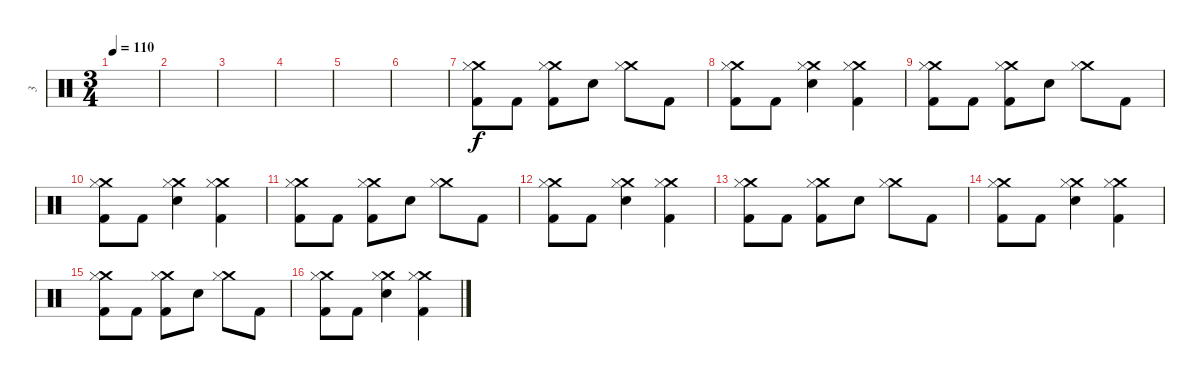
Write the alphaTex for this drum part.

\track ("3" "3") {instrument percussion}
\staff {score}
\articulation defaults
\ts (3 4)
\tempo 110
\clef neutral
\ks c
|
|
|
|
|
|
("Crash medium (hit)" "Hi-Hat (closed)" "Kick (hit) 2").8 "Kick (hit) 2".8 ("Crash medium (hit)" "Hi-Hat (closed)" "Kick (hit) 2").8 "Snare (hit) 2".8 ("Crash medium (hit)" "Hi-Hat (closed)").8 "Kick (hit) 2".8 |
("Crash medium (hit)" "Hi-Hat (closed)" "Kick (hit) 2").8 "Kick (hit) 2".8 ("Crash medium (hit)" "Hi-Hat (closed)" "Snare (hit) 2").4 ("Crash medium (hit)" "Hi-Hat (closed)" "Kick (hit) 2").4 |
("Crash medium (hit)" "Hi-Hat (closed)" "Kick (hit) 2").8 "Kick (hit) 2".8 ("Crash medium (hit)" "Hi-Hat (closed)" "Kick (hit) 2").8 "Snare (hit) 2".8 ("Crash medium (hit)" "Hi-Hat (closed)").8 "Kick (hit) 2".8 |
("Crash medium (hit)" "Hi-Hat (closed)" "Kick (hit) 2").8 "Kick (hit) 2".8 ("Crash medium (hit)" "Hi-Hat (closed)" "Snare (hit) 2").4 ("Crash medium (hit)" "Hi-Hat (closed)" "Kick (hit) 2").4 |
("Crash medium (hit)" "Hi-Hat (closed)" "Kick (hit) 2").8 "Kick (hit) 2".8 ("Crash medium (hit)" "Hi-Hat (closed)" "Kick (hit) 2").8 "Snare (hit) 2".8 ("Crash medium (hit)" "Hi-Hat (closed)").8 "Kick (hit) 2".8 |
("Crash medium (hit)" "Hi-Hat (closed)" "Kick (hit) 2").8 "Kick (hit) 2".8 ("Crash medium (hit)" "Hi-Hat (closed)" "Snare (hit) 2").4 ("Crash medium (hit)" "Hi-Hat (closed)" "Kick (hit) 2").4 |
("Crash medium (hit)" "Hi-Hat (closed)" "Kick (hit) 2").8 "Kick (hit) 2".8 ("Crash medium (hit)" "Hi-Hat (closed)" "Kick (hit) 2").8 "Snare (hit) 2".8 ("Crash medium (hit)" "Hi-Hat (closed)").8 "Kick (hit) 2".8 |
("Crash medium (hit)" "Hi-Hat (closed)" "Kick (hit) 2").8 "Kick (hit) 2".8 ("Crash medium (hit)" "Hi-Hat (closed)" "Snare (hit) 2").4 ("Crash medium (hit)" "Hi-Hat (closed)" "Kick (hit) 2").4 |
("Crash medium (hit)" "Hi-Hat (closed)" "Kick (hit) 2").8 "Kick (hit) 2".8 ("Crash medium (hit)" "Hi-Hat (closed)" "Kick (hit) 2").8 "Snare (hit) 2".8 ("Crash medium (hit)" "Hi-Hat (closed)").8 "Kick (hit) 2".8 |
("Crash medium (hit)" "Hi-Hat (closed)" "Kick (hit) 2").8 "Kick (hit) 2".8 ("Crash medium (hit)" "Hi-Hat (closed)" "Snare (hit) 2").4 ("Crash medium (hit)" "Hi-Hat (closed)" "Kick (hit) 2").4
